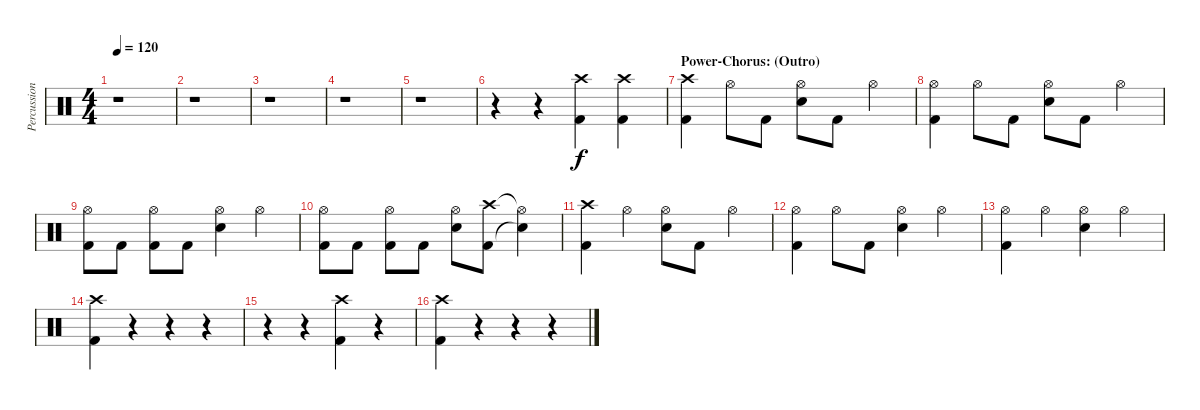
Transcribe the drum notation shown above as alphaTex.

\track ("Percussion" "Percussion") {instrument percussion}
\staff {score}
\articulation defaults
\ts (4 4)
\tempo 120
\clef neutral
\ks c
r.1{dy f} |
r.1 |
r.1 |
r.1 |
r.1 |
r.4 r.4 ("Crash high (hit)" "Kick (hit) 2").4 ("Crash high (hit)" "Kick (hit) 2").4 |
\section ("" "Power-Chorus: (Outro)")
("Crash high (hit)" "Kick (hit) 2").4 "Hi-Hat (open)".8 "Kick (hit) 2".8 ("Hi-Hat (open)" "Electric Snare (hit)").8 "Kick (hit) 2".8 "Hi-Hat (open)".4 |
("Hi-Hat (open)" "Kick (hit) 2").4 "Hi-Hat (open)".8 "Kick (hit) 2".8 ("Hi-Hat (open)" "Electric Snare (hit)").8 "Kick (hit) 2".8 "Hi-Hat (open)".4 |
("Hi-Hat (open)" "Kick (hit) 2").8 "Kick (hit) 2".8 ("Hi-Hat (open)" "Kick (hit) 2").8 "Kick (hit) 2".8 ("Hi-Hat (open)" "Electric Snare (hit)").4 "Hi-Hat (open)".4 |
("Hi-Hat (open)" "Kick (hit) 2").8 "Kick (hit) 2".8 ("Hi-Hat (open)" "Kick (hit) 2").8 "Kick (hit) 2".8 ("Hi-Hat (open)" "Electric Snare (hit)").8 ("Crash high (hit)" "Kick (hit) 2").8 ("Hi-Hat (open)"{t} "Snare (hit)"{t}).4 |
("Crash high (hit)" "Kick (hit) 2").4 "Hi-Hat (open)".4 ("Hi-Hat (open)" "Electric Snare (hit)").8 "Kick (hit) 2".8 "Hi-Hat (open)".4 |
("Hi-Hat (open)" "Kick (hit) 2").4 "Hi-Hat (open)".8 "Kick (hit) 2".8 ("Hi-Hat (open)" "Electric Snare (hit)").4 "Hi-Hat (open)".4 |
("Hi-Hat (open)" "Kick (hit) 2").4 "Hi-Hat (open)".4 ("Hi-Hat (open)" "Electric Snare (hit)").4 "Hi-Hat (open)".4 |
("Crash high (hit)" "Kick (hit) 2").4 r.4 r.4 r.4 |
r.4 r.4 ("Crash high (hit)" "Kick (hit) 2").4 r.4 |
("Crash high (hit)" "Kick (hit) 2").4 r.4 r.4 r.4
